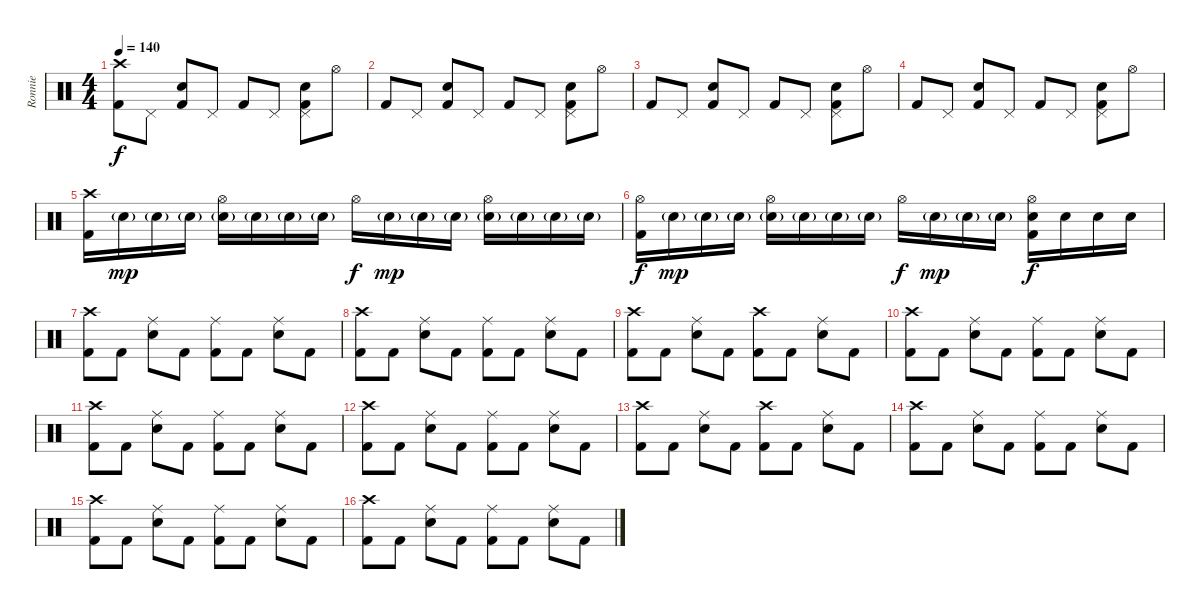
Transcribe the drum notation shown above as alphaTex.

\track ("Ronnie" "Ronnie") {instrument percussion}
\staff {score}
\articulation defaults
\ts (4 4)
\tempo 140
\clef neutral
\ks c
("Crash high (hit)" "Kick (hit) 2").8{dy f} "Pedal Hi-Hat (hit)".8 ("Kick (hit) 2" "Electric Snare (hit)").8 "Pedal Hi-Hat (hit)".8 "Kick (hit) 2".8 "Pedal Hi-Hat (hit)".8 ("Pedal Hi-Hat (hit)" "Kick (hit) 2" "Electric Snare (hit)").8 "Hi-Hat (open)".8 |
"Kick (hit) 2".8 "Pedal Hi-Hat (hit)".8 ("Kick (hit) 2" "Electric Snare (hit)").8 "Pedal Hi-Hat (hit)".8 "Kick (hit) 2".8 "Pedal Hi-Hat (hit)".8 ("Pedal Hi-Hat (hit)" "Kick (hit) 2" "Electric Snare (hit)").8 "Hi-Hat (open)".8 |
"Kick (hit) 2".8 "Pedal Hi-Hat (hit)".8 ("Kick (hit) 2" "Electric Snare (hit)").8 "Pedal Hi-Hat (hit)".8 "Kick (hit) 2".8 "Pedal Hi-Hat (hit)".8 ("Pedal Hi-Hat (hit)" "Kick (hit) 2" "Electric Snare (hit)").8 "Hi-Hat (open)".8 |
"Kick (hit) 2".8 "Pedal Hi-Hat (hit)".8 ("Kick (hit) 2" "Electric Snare (hit)").8 "Pedal Hi-Hat (hit)".8 "Kick (hit) 2".8 "Pedal Hi-Hat (hit)".8 ("Pedal Hi-Hat (hit)" "Kick (hit) 2" "Electric Snare (hit)").8 "Hi-Hat (open)".8 |
("Crash high (hit)" "Kick (hit) 2").16 "Electric Snare (hit)"{g}.16{dy mp} "Electric Snare (hit)"{g}.16 "Electric Snare (hit)"{g}.16 ("Hi-Hat (open)" "Electric Snare (hit)"{g}).16 "Electric Snare (hit)"{g}.16 "Electric Snare (hit)"{g}.16 "Electric Snare (hit)"{g}.16 "Hi-Hat (open)".16{dy f} "Electric Snare (hit)"{g}.16{dy mp} "Electric Snare (hit)"{g}.16 "Electric Snare (hit)"{g}.16 ("Hi-Hat (open)" "Electric Snare (hit)"{g}).16 "Electric Snare (hit)"{g}.16 "Electric Snare (hit)"{g}.16 "Electric Snare (hit)"{g}.16 |
("Hi-Hat (open)" "Kick (hit) 2").16{dy f} "Electric Snare (hit)"{g}.16{dy mp} "Electric Snare (hit)"{g}.16 "Electric Snare (hit)"{g}.16 ("Hi-Hat (open)" "Electric Snare (hit)"{g}).16 "Electric Snare (hit)"{g}.16 "Electric Snare (hit)"{g}.16 "Electric Snare (hit)"{g}.16 "Hi-Hat (open)".16{dy f} "Electric Snare (hit)"{g}.16{dy mp} "Electric Snare (hit)"{g}.16 "Electric Snare (hit)"{g}.16 ("Hi-Hat (open)" "Electric Snare (hit)" "Kick (hit) 2").16{dy f} "Electric Snare (hit)".16 "Electric Snare (hit)".16 "Electric Snare (hit)".16 |
("Crash high (hit)" "Kick (hit) 2").8 "Kick (hit) 2".8 ("Electric Snare (hit)" "Ride (middle)").8 "Kick (hit) 2".8 ("Ride (middle)" "Kick (hit) 2").8 "Kick (hit) 2".8 ("Electric Snare (hit)" "Ride (middle)").8 "Kick (hit) 2".8 |
("Crash high (hit)" "Kick (hit) 2").8 "Kick (hit) 2".8 ("Electric Snare (hit)" "Ride (middle)").8 "Kick (hit) 2".8 ("Ride (middle)" "Kick (hit) 2").8 "Kick (hit) 2".8 ("Electric Snare (hit)" "Ride (middle)").8 "Kick (hit) 2".8 |
("Crash high (hit)" "Kick (hit) 2").8 "Kick (hit) 2".8 ("Electric Snare (hit)" "Ride (middle)").8 "Kick (hit) 2".8 ("Crash high (hit)" "Kick (hit) 2").8 "Kick (hit) 2".8 ("Electric Snare (hit)" "Ride (middle)").8 "Kick (hit) 2".8 |
("Crash high (hit)" "Kick (hit) 2").8 "Kick (hit) 2".8 ("Electric Snare (hit)" "Ride (middle)").8 "Kick (hit) 2".8 ("Ride (middle)" "Kick (hit) 2").8 "Kick (hit) 2".8 ("Electric Snare (hit)" "Ride (middle)").8 "Kick (hit) 2".8 |
("Crash high (hit)" "Kick (hit) 2").8 "Kick (hit) 2".8 ("Electric Snare (hit)" "Ride (middle)").8 "Kick (hit) 2".8 ("Ride (middle)" "Kick (hit) 2").8 "Kick (hit) 2".8 ("Electric Snare (hit)" "Ride (middle)").8 "Kick (hit) 2".8 |
("Crash high (hit)" "Kick (hit) 2").8 "Kick (hit) 2".8 ("Electric Snare (hit)" "Ride (middle)").8 "Kick (hit) 2".8 ("Ride (middle)" "Kick (hit) 2").8 "Kick (hit) 2".8 ("Electric Snare (hit)" "Ride (middle)").8 "Kick (hit) 2".8 |
("Crash high (hit)" "Kick (hit) 2").8 "Kick (hit) 2".8 ("Electric Snare (hit)" "Ride (middle)").8 "Kick (hit) 2".8 ("Crash high (hit)" "Kick (hit) 2").8 "Kick (hit) 2".8 ("Electric Snare (hit)" "Ride (middle)").8 "Kick (hit) 2".8 |
("Crash high (hit)" "Kick (hit) 2").8 "Kick (hit) 2".8 ("Electric Snare (hit)" "Ride (middle)").8 "Kick (hit) 2".8 ("Ride (middle)" "Kick (hit) 2").8 "Kick (hit) 2".8 ("Electric Snare (hit)" "Ride (middle)").8 "Kick (hit) 2".8 |
("Crash high (hit)" "Kick (hit) 2").8 "Kick (hit) 2".8 ("Electric Snare (hit)" "Ride (middle)").8 "Kick (hit) 2".8 ("Ride (middle)" "Kick (hit) 2").8 "Kick (hit) 2".8 ("Electric Snare (hit)" "Ride (middle)").8 "Kick (hit) 2".8 |
("Crash high (hit)" "Kick (hit) 2").8 "Kick (hit) 2".8 ("Electric Snare (hit)" "Ride (middle)").8 "Kick (hit) 2".8 ("Ride (middle)" "Kick (hit) 2").8 "Kick (hit) 2".8 ("Electric Snare (hit)" "Ride (middle)").8 "Kick (hit) 2".8
